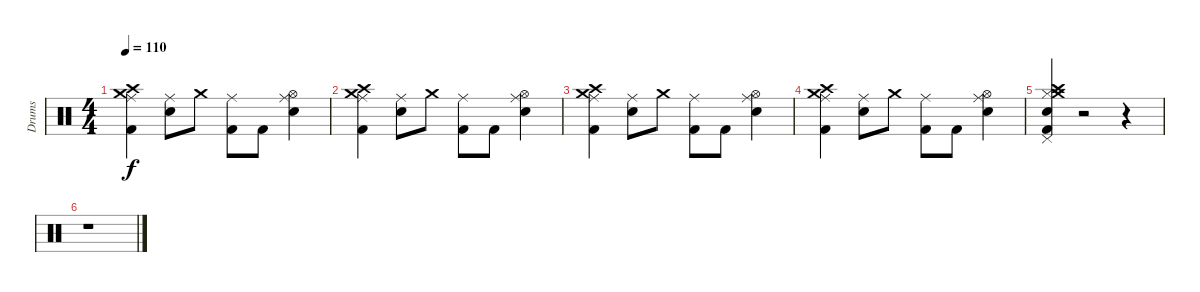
\track ("Drums" "Drums") {instrument percussion}
\staff {score}
\articulation defaults
\ts (4 4)
\tempo 110
\clef neutral
\ks c
("Kick (hit) 2" "Ride (middle)" "Crash high (hit)" "Crash medium (hit)").4{dy f} ("Snare (hit) 2" "Ride (middle)").8 "Crash medium (hit)".8 ("Kick (hit) 2" "Ride (middle)").8 "Kick (hit) 2".8 ("Snare (hit) 2" "Ride (middle)" "Hi-Hat (open)").4 |
("Kick (hit) 2" "Ride (middle)" "Crash high (hit)" "Crash medium (hit)").4 ("Snare (hit) 2" "Ride (middle)").8 "Crash medium (hit)".8 ("Kick (hit) 2" "Ride (middle)").8 "Kick (hit) 2".8 ("Snare (hit) 2" "Ride (middle)" "Hi-Hat (open)").4 |
("Kick (hit) 2" "Ride (middle)" "Crash high (hit)" "Crash medium (hit)").4 ("Snare (hit) 2" "Ride (middle)").8 "Crash medium (hit)".8 ("Kick (hit) 2" "Ride (middle)").8 "Kick (hit) 2".8 ("Snare (hit) 2" "Ride (middle)" "Hi-Hat (open)").4 |
("Kick (hit) 2" "Ride (middle)" "Crash high (hit)" "Crash medium (hit)").4 ("Snare (hit) 2" "Ride (middle)").8 "Crash medium (hit)".8 ("Kick (hit) 2" "Ride (middle)").8 "Kick (hit) 2".8 ("Snare (hit) 2" "Ride (middle)" "Hi-Hat (open)").4 |
("Hi-Hat (closed)" "Pedal Hi-Hat (hit)" "Kick (hit) 2" "Snare (hit) 2" "Crash high (hit)" "Crash medium (hit)").4 r.2 r.4 |
r.1
